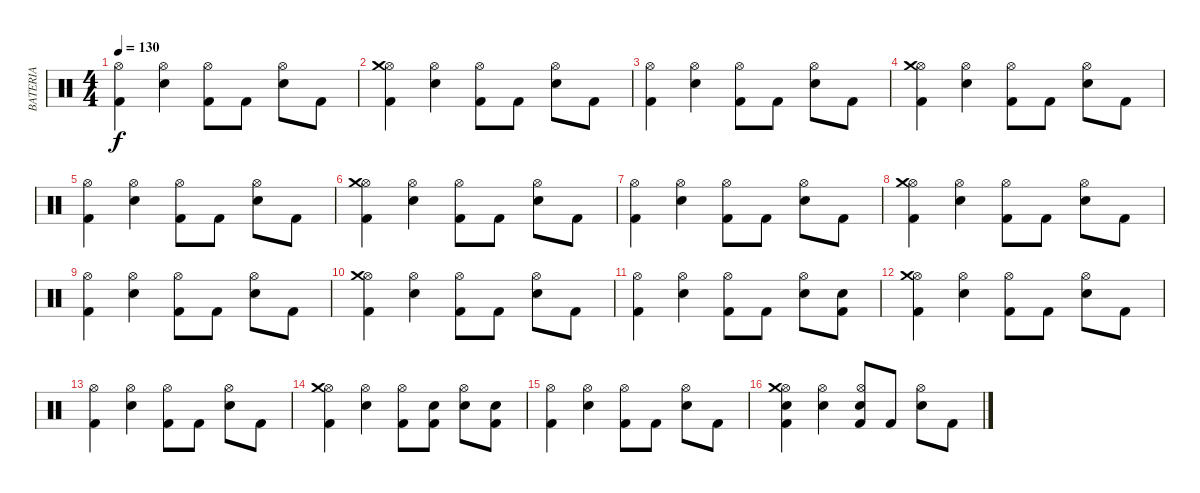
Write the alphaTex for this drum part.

\track ("BATERIA" "BATERIA") {instrument percussion}
\staff {score}
\articulation defaults
\ts (4 4)
\tempo 130
\clef neutral
\ks c
("Kick (hit) 2" "Hi-Hat (open)").4{dy f} ("Electric Snare (hit)" "Hi-Hat (open)").4 ("Kick (hit) 2" "Hi-Hat (open)").8 "Kick (hit) 2".8 ("Electric Snare (hit)" "Hi-Hat (open)").8 "Kick (hit) 2".8 |
("Kick (hit) 2" "Hi-Hat (open)" "Crash medium (hit)").4 ("Electric Snare (hit)" "Hi-Hat (open)").4 ("Kick (hit) 2" "Hi-Hat (open)").8 "Kick (hit) 2".8 ("Electric Snare (hit)" "Hi-Hat (open)").8 "Kick (hit) 2".8 |
("Kick (hit) 2" "Hi-Hat (open)").4 ("Electric Snare (hit)" "Hi-Hat (open)").4 ("Kick (hit) 2" "Hi-Hat (open)").8 "Kick (hit) 2".8 ("Electric Snare (hit)" "Hi-Hat (open)").8 "Kick (hit) 2".8 |
("Kick (hit) 2" "Hi-Hat (open)" "Crash medium (hit)").4 ("Electric Snare (hit)" "Hi-Hat (open)").4 ("Kick (hit) 2" "Hi-Hat (open)").8 "Kick (hit) 2".8 ("Electric Snare (hit)" "Hi-Hat (open)").8 "Kick (hit) 2".8 |
("Kick (hit) 2" "Hi-Hat (open)").4 ("Electric Snare (hit)" "Hi-Hat (open)").4 ("Kick (hit) 2" "Hi-Hat (open)").8 "Kick (hit) 2".8 ("Electric Snare (hit)" "Hi-Hat (open)").8 "Kick (hit) 2".8 |
("Kick (hit) 2" "Hi-Hat (open)" "Crash medium (hit)").4 ("Electric Snare (hit)" "Hi-Hat (open)").4 ("Kick (hit) 2" "Hi-Hat (open)").8 "Kick (hit) 2".8 ("Electric Snare (hit)" "Hi-Hat (open)").8 "Kick (hit) 2".8 |
("Kick (hit) 2" "Hi-Hat (open)").4 ("Electric Snare (hit)" "Hi-Hat (open)").4 ("Kick (hit) 2" "Hi-Hat (open)").8 "Kick (hit) 2".8 ("Electric Snare (hit)" "Hi-Hat (open)").8 "Kick (hit) 2".8 |
("Kick (hit) 2" "Hi-Hat (open)" "Crash medium (hit)").4 ("Electric Snare (hit)" "Hi-Hat (open)").4 ("Kick (hit) 2" "Hi-Hat (open)").8 "Kick (hit) 2".8 ("Electric Snare (hit)" "Hi-Hat (open)").8 "Kick (hit) 2".8 |
("Kick (hit) 2" "Hi-Hat (open)").4 ("Electric Snare (hit)" "Hi-Hat (open)").4 ("Kick (hit) 2" "Hi-Hat (open)").8 "Kick (hit) 2".8 ("Electric Snare (hit)" "Hi-Hat (open)").8 "Kick (hit) 2".8 |
("Kick (hit) 2" "Hi-Hat (open)" "Crash medium (hit)").4 ("Electric Snare (hit)" "Hi-Hat (open)").4 ("Kick (hit) 2" "Hi-Hat (open)").8 "Kick (hit) 2".8 ("Electric Snare (hit)" "Hi-Hat (open)").8 "Kick (hit) 2".8 |
("Kick (hit) 2" "Hi-Hat (open)").4 ("Electric Snare (hit)" "Hi-Hat (open)").4 ("Kick (hit) 2" "Hi-Hat (open)").8 "Kick (hit) 2".8 ("Electric Snare (hit)" "Hi-Hat (open)").8 ("Kick (hit) 2" "Electric Snare (hit)").8 |
("Kick (hit) 2" "Hi-Hat (open)" "Crash medium (hit)").4 ("Electric Snare (hit)" "Hi-Hat (open)").4 ("Kick (hit) 2" "Hi-Hat (open)").8 "Kick (hit) 2".8 ("Electric Snare (hit)" "Hi-Hat (open)").8 "Kick (hit) 2".8 |
("Kick (hit) 2" "Hi-Hat (open)").4 ("Electric Snare (hit)" "Hi-Hat (open)").4 ("Kick (hit) 2" "Hi-Hat (open)").8 "Kick (hit) 2".8 ("Electric Snare (hit)" "Hi-Hat (open)").8 "Kick (hit) 2".8 |
("Kick (hit) 2" "Hi-Hat (open)" "Crash medium (hit)").4 ("Electric Snare (hit)" "Hi-Hat (open)").4 ("Kick (hit) 2" "Hi-Hat (open)").8 ("Kick (hit) 2" "Electric Snare (hit)").8 ("Electric Snare (hit)" "Hi-Hat (open)").8 ("Kick (hit) 2" "Electric Snare (hit)").8 |
("Kick (hit) 2" "Hi-Hat (open)").4 ("Electric Snare (hit)" "Hi-Hat (open)").4 ("Kick (hit) 2" "Hi-Hat (open)").8 "Kick (hit) 2".8 ("Electric Snare (hit)" "Hi-Hat (open)").8 "Kick (hit) 2".8 |
("Kick (hit) 2" "Electric Snare (hit)" "Hi-Hat (open)" "Crash medium (hit)").4 ("Electric Snare (hit)" "Hi-Hat (open)").4 ("Kick (hit) 2" "Electric Snare (hit)" "Hi-Hat (open)").8 "Kick (hit) 2".8 ("Electric Snare (hit)" "Hi-Hat (open)").8 "Kick (hit) 2".8
